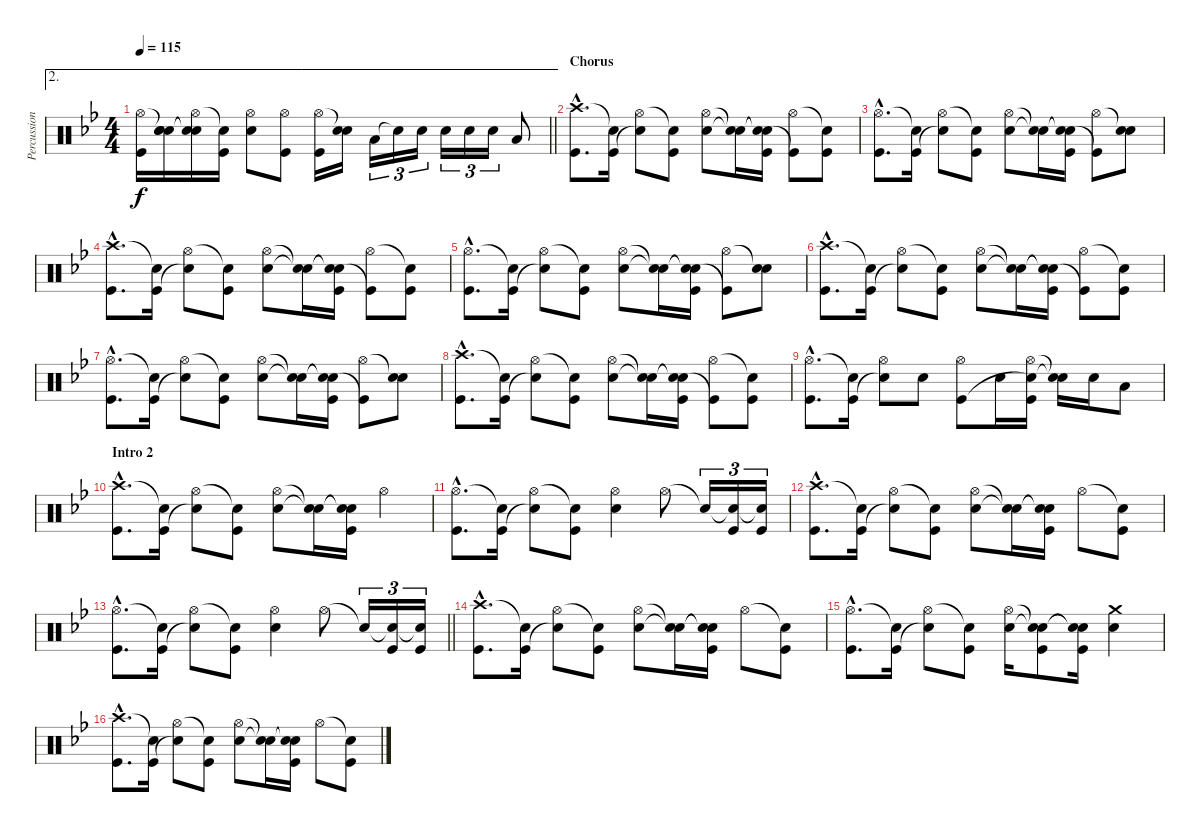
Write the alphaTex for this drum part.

\track ("Percussion" "Percussion") {instrument percussion}
\staff {score}
\articulation defaults
\ae 2
\ts (4 4)
\tempo 115
\clef neutral
\barLineRight lightlight
\ks bb
("Hi-Hat (open)" "Kick (hit)").16{dy f} ("Snare (hit)"{t} "Electric Snare (hit)" "Snare (hit)"{t}).16 ("Hi-Hat (open)" "Snare (hit)"{t} "Snare (hit)"{t}).16 ("Snare (hit)"{t} "Kick (hit)").16 ("Hi-Hat (open)" "Electric Snare (hit)").8 ("Hi-Hat (open)" "Kick (hit)").8 ("Hi-Hat (open)" "Kick (hit)").16 ("Snare (hit)"{t} "Electric Snare (hit)").16 "Low Floor Tom (hit)".16{tu (3 2)} "Snare (hit)"{t}.16{tu (3 2)} "Electric Snare (hit)".16{tu (3 2)} "Electric Snare (hit)".16{tu (3 2)} "Electric Snare (hit)".16{tu (3 2)} "Electric Snare (hit)".16{tu (3 2)} "Low Tom (hit)".8 |
\section ("" "Chorus")
("Crash high (hit)"{hac} "Kick (hit)"{hac}).8{d} ("Snare (hit)"{t} "Kick (hit)").16 ("Hi-Hat (open)" "Snare (hit)"{t}).8 ("Snare (hit)"{t} "Kick (hit)").8 ("Hi-Hat (open)" "Electric Snare (hit)").8 ("Snare (hit)"{t} "Snare (hit)"{t}).16 ("Snare (hit)"{t} "Snare (hit)"{t} "Kick (hit)").16 ("Hi-Hat (open)" "Kick (hit)"{t}).8 ("Snare (hit)"{t} "Kick (hit)").8 |
("Hi-Hat (open)"{hac} "Kick (hit)"{hac}).8{d} ("Snare (hit)"{t} "Kick (hit)").16 ("Hi-Hat (open)" "Snare (hit)"{t}).8 ("Snare (hit)"{t} "Kick (hit)").8 ("Hi-Hat (open)" "Electric Snare (hit)").8 ("Snare (hit)"{t} "Snare (hit)"{t}).16 ("Snare (hit)"{t} "Snare (hit)"{t} "Kick (hit)").16 ("Hi-Hat (open)" "Kick (hit)"{t}).8 ("Snare (hit)"{t} "Electric Snare (hit)").8 |
("Crash high (hit)"{hac} "Kick (hit)"{hac}).8{d} ("Snare (hit)"{t} "Kick (hit)").16 ("Hi-Hat (open)" "Snare (hit)"{t}).8 ("Snare (hit)"{t} "Kick (hit)").8 ("Hi-Hat (open)" "Electric Snare (hit)").8 ("Snare (hit)"{t} "Snare (hit)"{t}).16 ("Snare (hit)"{t} "Snare (hit)"{t} "Kick (hit)").16 ("Hi-Hat (open)" "Kick (hit)"{t}).8 ("Snare (hit)"{t} "Kick (hit)").8 |
("Hi-Hat (open)"{hac} "Kick (hit)"{hac}).8{d} ("Snare (hit)"{t} "Kick (hit)").16 ("Hi-Hat (open)" "Snare (hit)"{t}).8 ("Snare (hit)"{t} "Kick (hit)").8 ("Hi-Hat (open)" "Electric Snare (hit)").8 ("Snare (hit)"{t} "Snare (hit)"{t}).16 ("Snare (hit)"{t} "Snare (hit)"{t} "Kick (hit)").16 ("Hi-Hat (open)" "Kick (hit)"{t}).8 ("Snare (hit)"{t} "Electric Snare (hit)").8 |
("Crash high (hit)"{hac} "Kick (hit)"{hac}).8{d} ("Snare (hit)"{t} "Kick (hit)").16 ("Hi-Hat (open)" "Snare (hit)"{t}).8 ("Snare (hit)"{t} "Kick (hit)").8 ("Hi-Hat (open)" "Electric Snare (hit)").8 ("Snare (hit)"{t} "Snare (hit)"{t}).16 ("Snare (hit)"{t} "Snare (hit)"{t} "Kick (hit)").16 ("Hi-Hat (open)" "Kick (hit)"{t}).8 ("Snare (hit)"{t} "Kick (hit)").8 |
("Hi-Hat (open)"{hac} "Kick (hit)"{hac}).8{d} ("Snare (hit)"{t} "Kick (hit)").16 ("Hi-Hat (open)" "Snare (hit)"{t}).8 ("Snare (hit)"{t} "Kick (hit)").8 ("Hi-Hat (open)" "Electric Snare (hit)").8 ("Snare (hit)"{t} "Snare (hit)"{t}).16 ("Snare (hit)"{t} "Snare (hit)"{t} "Kick (hit)").16 ("Hi-Hat (open)" "Kick (hit)"{t}).8 ("Snare (hit)"{t} "Electric Snare (hit)").8 |
("Crash high (hit)"{hac} "Kick (hit)"{hac}).8{d} ("Snare (hit)"{t} "Kick (hit)").16 ("Hi-Hat (open)" "Snare (hit)"{t}).8 ("Snare (hit)"{t} "Kick (hit)").8 ("Hi-Hat (open)" "Electric Snare (hit)").8 ("Snare (hit)"{t} "Snare (hit)"{t}).16 ("Snare (hit)"{t} "Snare (hit)"{t} "Kick (hit)").16 ("Hi-Hat (open)" "Kick (hit)"{t}).8 ("Snare (hit)"{t} "Kick (hit)").8 |
("Hi-Hat (open)"{hac} "Kick (hit)"{hac}).8{d} ("Snare (hit)"{t} "Kick (hit)").16 ("Hi-Hat (open)" "Snare (hit)"{t}).8 "Electric Snare (hit)".8 ("Hi-Hat (open)" "Kick (hit)").8 "Electric Snare (hit)".16 ("Hi-Hat (open)" "Snare (hit)"{t} "Kick (hit)").16 ("Snare (hit)"{t} "Snare (hit)"{t}).16 "Electric Snare (hit)".16 "Low Tom (hit)".8 |
\section ("" "Intro 2")
("Crash high (hit)"{hac} "Kick (hit)"{hac}).8{d} ("Snare (hit)"{t} "Kick (hit)").16 ("Hi-Hat (open)" "Snare (hit)"{t}).8 ("Snare (hit)"{t} "Kick (hit)").8 ("Hi-Hat (open)" "Electric Snare (hit)").8 ("Snare (hit)"{t} "Snare (hit)"{t}).16 ("Snare (hit)"{t} "Snare (hit)"{t} "Kick (hit)").16 "Hi-Hat (open)".4 |
("Hi-Hat (open)"{hac} "Kick (hit)"{hac}).8{d} ("Snare (hit)"{t} "Kick (hit)").16 ("Hi-Hat (open)" "Snare (hit)"{t}).8 ("Snare (hit)"{t} "Kick (hit)").8 ("Hi-Hat (open)" "Electric Snare (hit)").4 "Hi-Hat (open)".8 "Snare (hit)"{t}.16{tu (3 2)} ("Snare (hit)"{t} "Kick (hit)").16{tu (3 2)} ("Snare (hit)"{t} "Kick (hit)").16{tu (3 2)} |
("Crash high (hit)"{hac} "Kick (hit)"{hac}).8{d} ("Snare (hit)"{t} "Kick (hit)").16 ("Hi-Hat (open)" "Snare (hit)"{t}).8 ("Snare (hit)"{t} "Kick (hit)").8 ("Hi-Hat (open)" "Electric Snare (hit)").8 ("Snare (hit)"{t} "Snare (hit)"{t}).16 ("Snare (hit)"{t} "Snare (hit)"{t} "Kick (hit)").16 "Hi-Hat (open)".8 ("Snare (hit)"{t} "Kick (hit)").8 |
\barLineRight lightlight
("Hi-Hat (open)"{hac} "Kick (hit)"{hac}).8{d} ("Snare (hit)"{t} "Kick (hit)").16 ("Hi-Hat (open)" "Snare (hit)"{t}).8 ("Snare (hit)"{t} "Kick (hit)").8 ("Hi-Hat (open)" "Electric Snare (hit)").4 "Hi-Hat (open)".8 "Snare (hit)"{t}.16{tu (3 2)} ("Snare (hit)"{t} "Kick (hit)").16{tu (3 2)} ("Snare (hit)"{t} "Kick (hit)").16{tu (3 2)} |
("Crash high (hit)"{hac} "Kick (hit)"{hac}).8{d} ("Snare (hit)"{t} "Kick (hit)").16 ("Hi-Hat (open)" "Snare (hit)"{t}).8 ("Snare (hit)"{t} "Kick (hit)").8 ("Hi-Hat (open)" "Electric Snare (hit)").8 ("Snare (hit)"{t} "Snare (hit)"{t}).16 ("Snare (hit)"{t} "Snare (hit)"{t} "Kick (hit)").16 "Hi-Hat (open)".8 ("Snare (hit)"{t} "Kick (hit)").8 |
("Hi-Hat (open)"{hac} "Kick (hit)"{hac}).8{d} ("Snare (hit)"{t} "Kick (hit)").16 ("Hi-Hat (open)" "Snare (hit)"{t}).8 ("Snare (hit)"{t} "Kick (hit)").8 ("Hi-Hat (open)" "Electric Snare (hit)").16 ("Snare (hit)"{t} "Snare (hit)"{t} "Kick (hit)").8 ("Snare (hit)"{t} "Snare (hit)"{t} "Kick (hit)").16 ("Crash medium (hit)" "Electric Snare (hit)").4 |
("Crash high (hit)"{hac} "Kick (hit)"{hac}).8{d} ("Snare (hit)"{t} "Kick (hit)").16 ("Hi-Hat (open)" "Snare (hit)"{t}).8 ("Snare (hit)"{t} "Kick (hit)").8 ("Hi-Hat (open)" "Electric Snare (hit)").8 ("Snare (hit)"{t} "Snare (hit)"{t}).16 ("Snare (hit)"{t} "Snare (hit)"{t} "Kick (hit)").16 "Hi-Hat (open)".8 ("Snare (hit)"{t} "Kick (hit)").8
